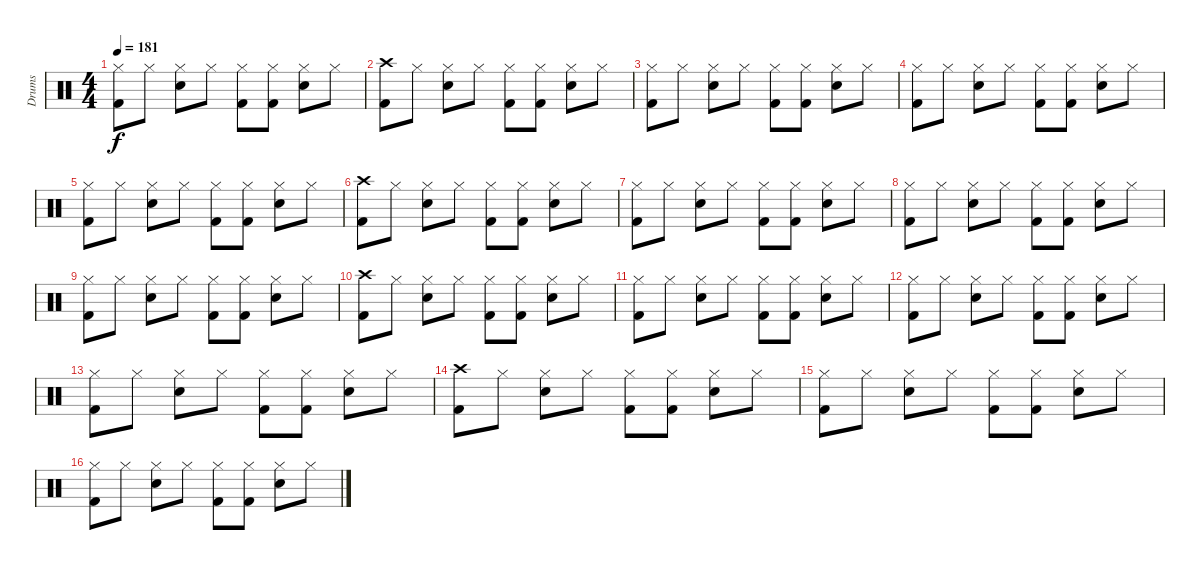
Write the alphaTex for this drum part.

\track ("Drums" "Drums") {instrument percussion}
\staff {score}
\articulation defaults
\ts (4 4)
\tempo 181
\clef neutral
\ks c
("Hi-Hat (closed)" "Kick (hit) 2").8{dy f} "Hi-Hat (closed)".8 ("Hi-Hat (closed)" "Snare (hit) 2").8 "Hi-Hat (closed)".8 ("Hi-Hat (closed)" "Kick (hit) 2").8 ("Hi-Hat (closed)" "Kick (hit) 2").8 ("Hi-Hat (closed)" "Snare (hit) 2").8 "Hi-Hat (closed)".8 |
("Crash high (hit)" "Kick (hit) 2").8 "Hi-Hat (closed)".8 ("Hi-Hat (closed)" "Snare (hit) 2").8 "Hi-Hat (closed)".8 ("Hi-Hat (closed)" "Kick (hit) 2").8 ("Hi-Hat (closed)" "Kick (hit) 2").8 ("Hi-Hat (closed)" "Snare (hit) 2").8 "Hi-Hat (closed)".8 |
("Hi-Hat (closed)" "Kick (hit) 2").8 "Hi-Hat (closed)".8 ("Hi-Hat (closed)" "Snare (hit) 2").8 "Hi-Hat (closed)".8 ("Hi-Hat (closed)" "Kick (hit) 2").8 ("Hi-Hat (closed)" "Kick (hit) 2").8 ("Hi-Hat (closed)" "Snare (hit) 2").8 "Hi-Hat (closed)".8 |
("Hi-Hat (closed)" "Kick (hit) 2").8 "Hi-Hat (closed)".8 ("Hi-Hat (closed)" "Snare (hit) 2").8 "Hi-Hat (closed)".8 ("Hi-Hat (closed)" "Kick (hit) 2").8 ("Hi-Hat (closed)" "Kick (hit) 2").8 ("Hi-Hat (closed)" "Snare (hit) 2").8 "Hi-Hat (closed)".8 |
("Hi-Hat (closed)" "Kick (hit) 2").8 "Hi-Hat (closed)".8 ("Hi-Hat (closed)" "Snare (hit) 2").8 "Hi-Hat (closed)".8 ("Hi-Hat (closed)" "Kick (hit) 2").8 ("Hi-Hat (closed)" "Kick (hit) 2").8 ("Hi-Hat (closed)" "Snare (hit) 2").8 "Hi-Hat (closed)".8 |
("Crash high (hit)" "Kick (hit) 2").8 "Hi-Hat (closed)".8 ("Hi-Hat (closed)" "Snare (hit) 2").8 "Hi-Hat (closed)".8 ("Hi-Hat (closed)" "Kick (hit) 2").8 ("Hi-Hat (closed)" "Kick (hit) 2").8 ("Hi-Hat (closed)" "Snare (hit) 2").8 "Hi-Hat (closed)".8 |
("Hi-Hat (closed)" "Kick (hit) 2").8 "Hi-Hat (closed)".8 ("Hi-Hat (closed)" "Snare (hit) 2").8 "Hi-Hat (closed)".8 ("Hi-Hat (closed)" "Kick (hit) 2").8 ("Hi-Hat (closed)" "Kick (hit) 2").8 ("Hi-Hat (closed)" "Snare (hit) 2").8 "Hi-Hat (closed)".8 |
("Hi-Hat (closed)" "Kick (hit) 2").8 "Hi-Hat (closed)".8 ("Hi-Hat (closed)" "Snare (hit) 2").8 "Hi-Hat (closed)".8 ("Hi-Hat (closed)" "Kick (hit) 2").8 ("Hi-Hat (closed)" "Kick (hit) 2").8 ("Hi-Hat (closed)" "Snare (hit) 2").8 "Hi-Hat (closed)".8 |
("Hi-Hat (closed)" "Kick (hit) 2").8 "Hi-Hat (closed)".8 ("Hi-Hat (closed)" "Snare (hit) 2").8 "Hi-Hat (closed)".8 ("Hi-Hat (closed)" "Kick (hit) 2").8 ("Hi-Hat (closed)" "Kick (hit) 2").8 ("Hi-Hat (closed)" "Snare (hit) 2").8 "Hi-Hat (closed)".8 |
("Crash high (hit)" "Kick (hit) 2").8 "Hi-Hat (closed)".8 ("Hi-Hat (closed)" "Snare (hit) 2").8 "Hi-Hat (closed)".8 ("Hi-Hat (closed)" "Kick (hit) 2").8 ("Hi-Hat (closed)" "Kick (hit) 2").8 ("Hi-Hat (closed)" "Snare (hit) 2").8 "Hi-Hat (closed)".8 |
("Hi-Hat (closed)" "Kick (hit) 2").8 "Hi-Hat (closed)".8 ("Hi-Hat (closed)" "Snare (hit) 2").8 "Hi-Hat (closed)".8 ("Hi-Hat (closed)" "Kick (hit) 2").8 ("Hi-Hat (closed)" "Kick (hit) 2").8 ("Hi-Hat (closed)" "Snare (hit) 2").8 "Hi-Hat (closed)".8 |
("Hi-Hat (closed)" "Kick (hit) 2").8 "Hi-Hat (closed)".8 ("Hi-Hat (closed)" "Snare (hit) 2").8 "Hi-Hat (closed)".8 ("Hi-Hat (closed)" "Kick (hit) 2").8 ("Hi-Hat (closed)" "Kick (hit) 2").8 ("Hi-Hat (closed)" "Snare (hit) 2").8 "Hi-Hat (closed)".8 |
("Hi-Hat (closed)" "Kick (hit) 2").8 "Hi-Hat (closed)".8 ("Hi-Hat (closed)" "Snare (hit) 2").8 "Hi-Hat (closed)".8 ("Hi-Hat (closed)" "Kick (hit) 2").8 ("Hi-Hat (closed)" "Kick (hit) 2").8 ("Hi-Hat (closed)" "Snare (hit) 2").8 "Hi-Hat (closed)".8 |
("Crash high (hit)" "Kick (hit) 2").8 "Hi-Hat (closed)".8 ("Hi-Hat (closed)" "Snare (hit) 2").8 "Hi-Hat (closed)".8 ("Hi-Hat (closed)" "Kick (hit) 2").8 ("Hi-Hat (closed)" "Kick (hit) 2").8 ("Hi-Hat (closed)" "Snare (hit) 2").8 "Hi-Hat (closed)".8 |
("Hi-Hat (closed)" "Kick (hit) 2").8 "Hi-Hat (closed)".8 ("Hi-Hat (closed)" "Snare (hit) 2").8 "Hi-Hat (closed)".8 ("Hi-Hat (closed)" "Kick (hit) 2").8 ("Hi-Hat (closed)" "Kick (hit) 2").8 ("Hi-Hat (closed)" "Snare (hit) 2").8 "Hi-Hat (closed)".8 |
("Hi-Hat (closed)" "Kick (hit) 2").8 "Hi-Hat (closed)".8 ("Hi-Hat (closed)" "Snare (hit) 2").8 "Hi-Hat (closed)".8 ("Hi-Hat (closed)" "Kick (hit) 2").8 ("Hi-Hat (closed)" "Kick (hit) 2").8 ("Hi-Hat (closed)" "Snare (hit) 2").8 "Hi-Hat (closed)".8
